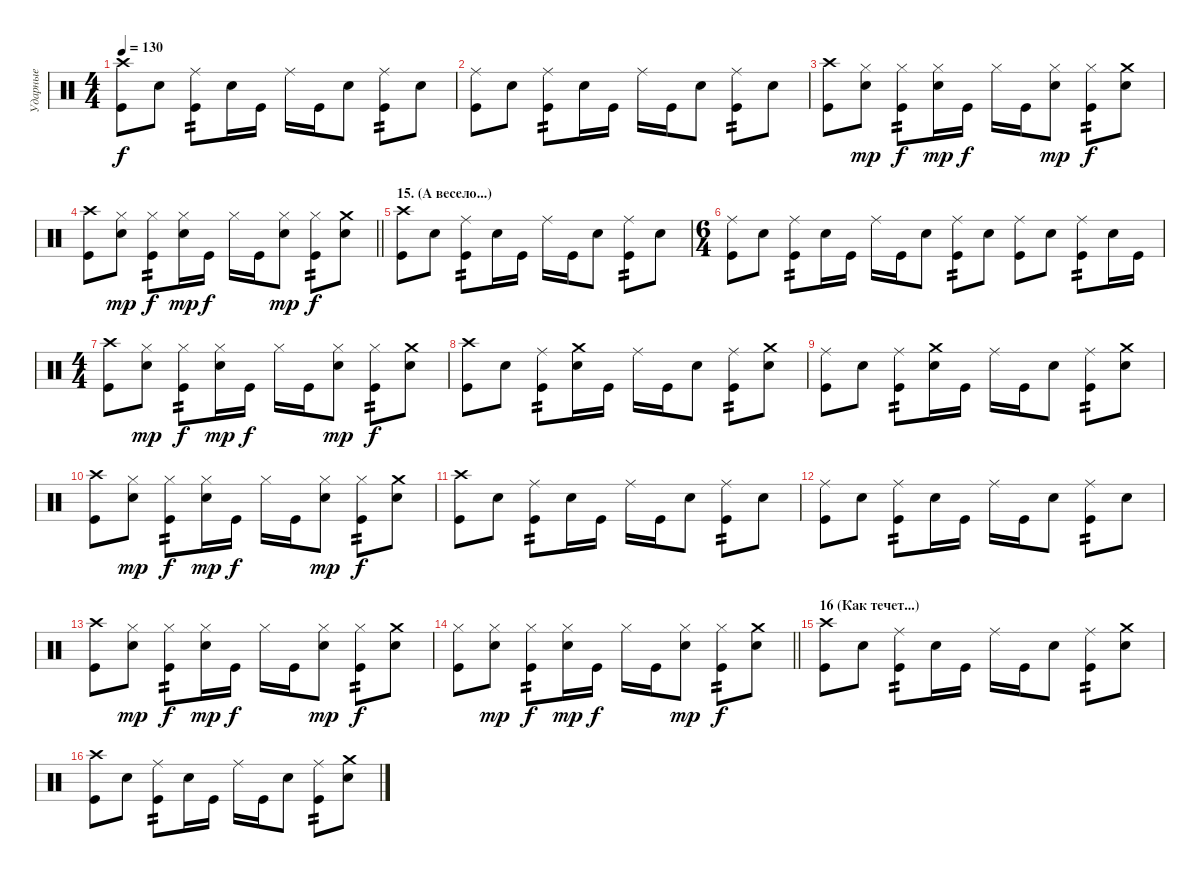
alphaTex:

\track ("Ударные" "Ударные") {instrument percussion}
\staff {score}
\articulation defaults
\ts (4 4)
\tempo 130
\clef neutral
\ks c
("Crash high (hit)" "Kick (hit)").8{dy f} "Snare (hit) 2".8 ("Ride (middle)" "Kick (hit)").8{tp 2} "Snare (hit) 2".16 "Kick (hit)".16 "Ride (middle)".16 "Kick (hit)".16 "Snare (hit) 2".8 ("Ride (middle)" "Kick (hit)").8{tp 2} "Snare (hit) 2".8 |
("Ride (middle)" "Kick (hit)").8 "Snare (hit) 2".8 ("Ride (middle)" "Kick (hit)").8{tp 2} "Snare (hit) 2".16 "Kick (hit)".16 "Ride (middle)".16 "Kick (hit)".16 "Snare (hit) 2".8 ("Ride (middle)" "Kick (hit)").8{tp 2} "Snare (hit) 2".8 |
("Crash high (hit)" "Kick (hit)").8 ("Hi-Hat (closed)" "Snare (hit) 2").8{dy mp} ("Hi-Hat (closed)" "Kick (hit)").8{tp 2 dy f} ("Hi-Hat (closed)" "Snare (hit) 2").16{dy mp} "Kick (hit)".16{dy f} "Hi-Hat (closed)".16 "Kick (hit)".16 ("Hi-Hat (closed)" "Snare (hit) 2").8{dy mp} ("Hi-Hat (closed)" "Kick (hit)").8{tp 2 dy f} ("Crash medium (hit)" "Snare (hit) 2").8 |
\barLineRight lightlight
("Crash high (hit)" "Kick (hit)").8 ("Hi-Hat (closed)" "Snare (hit) 2").8{dy mp} ("Hi-Hat (closed)" "Kick (hit)").8{tp 2 dy f} ("Hi-Hat (closed)" "Snare (hit) 2").16{dy mp} "Kick (hit)".16{dy f} "Hi-Hat (closed)".16 "Kick (hit)".16 ("Hi-Hat (closed)" "Snare (hit) 2").8{dy mp} ("Hi-Hat (closed)" "Kick (hit)").8{tp 2 dy f} ("Crash medium (hit)" "Snare (hit) 2").8 |
\section ("" "15. (А весело...)")
("Crash high (hit)" "Kick (hit)").8 "Snare (hit) 2".8 ("Ride (middle)" "Kick (hit)").8{tp 2} "Snare (hit) 2".16 "Kick (hit)".16 "Ride (middle)".16 "Kick (hit)".16 "Snare (hit) 2".8 ("Ride (middle)" "Kick (hit)").8{tp 2} "Snare (hit) 2".8 |
\ts (6 4)
("Ride (middle)" "Kick (hit)").8 "Snare (hit) 2".8 ("Ride (middle)" "Kick (hit)").8{tp 2} "Snare (hit) 2".16 "Kick (hit)".16 "Ride (middle)".16 "Kick (hit)".16 "Snare (hit) 2".8 ("Ride (middle)" "Kick (hit)").8{tp 2} "Snare (hit) 2".8 ("Ride (middle)" "Kick (hit)").8 "Snare (hit) 2".8 ("Ride (middle)" "Kick (hit)").8{tp 2} "Snare (hit) 2".16 "Kick (hit)".16 |
\ts (4 4)
("Crash high (hit)" "Kick (hit)").8 ("Hi-Hat (closed)" "Snare (hit) 2").8{dy mp} ("Hi-Hat (closed)" "Kick (hit)").8{tp 2 dy f} ("Hi-Hat (closed)" "Snare (hit) 2").16{dy mp} "Kick (hit)".16{dy f} "Hi-Hat (closed)".16 "Kick (hit)".16 ("Hi-Hat (closed)" "Snare (hit) 2").8{dy mp} ("Hi-Hat (closed)" "Kick (hit)").8{tp 2 dy f} ("Crash medium (hit)" "Snare (hit) 2").8 |
("Crash high (hit)" "Kick (hit)").8 "Snare (hit) 2".8 ("Ride (middle)" "Kick (hit)").8{tp 2} ("Crash medium (hit)" "Snare (hit) 2").16 "Kick (hit)".16 "Ride (middle)".16 "Kick (hit)".16 "Snare (hit) 2".8 ("Ride (middle)" "Kick (hit)").8{tp 2} ("Crash medium (hit)" "Snare (hit) 2").8 |
("Ride (middle)" "Kick (hit)").8 "Snare (hit) 2".8 ("Ride (middle)" "Kick (hit)").8{tp 2} ("Crash medium (hit)" "Snare (hit) 2").16 "Kick (hit)".16 "Ride (middle)".16 "Kick (hit)".16 "Snare (hit) 2".8 ("Ride (middle)" "Kick (hit)").8{tp 2} ("Crash medium (hit)" "Snare (hit) 2").8 |
("Crash high (hit)" "Kick (hit)").8 ("Hi-Hat (closed)" "Snare (hit) 2").8{dy mp} ("Hi-Hat (closed)" "Kick (hit)").8{tp 2 dy f} ("Hi-Hat (closed)" "Snare (hit) 2").16{dy mp} "Kick (hit)".16{dy f} "Hi-Hat (closed)".16 "Kick (hit)".16 ("Hi-Hat (closed)" "Snare (hit) 2").8{dy mp} ("Hi-Hat (closed)" "Kick (hit)").8{tp 2 dy f} ("Crash medium (hit)" "Snare (hit) 2").8 |
("Crash high (hit)" "Kick (hit)").8 "Snare (hit) 2".8 ("Ride (middle)" "Kick (hit)").8{tp 2} "Snare (hit) 2".16 "Kick (hit)".16 "Ride (middle)".16 "Kick (hit)".16 "Snare (hit) 2".8 ("Ride (middle)" "Kick (hit)").8{tp 2} "Snare (hit) 2".8 |
("Ride (middle)" "Kick (hit)").8 "Snare (hit) 2".8 ("Ride (middle)" "Kick (hit)").8{tp 2} "Snare (hit) 2".16 "Kick (hit)".16 "Ride (middle)".16 "Kick (hit)".16 "Snare (hit) 2".8 ("Ride (middle)" "Kick (hit)").8{tp 2} "Snare (hit) 2".8 |
("Crash high (hit)" "Kick (hit)").8 ("Hi-Hat (closed)" "Snare (hit) 2").8{dy mp} ("Hi-Hat (closed)" "Kick (hit)").8{tp 2 dy f} ("Hi-Hat (closed)" "Snare (hit) 2").16{dy mp} "Kick (hit)".16{dy f} "Hi-Hat (closed)".16 "Kick (hit)".16 ("Hi-Hat (closed)" "Snare (hit) 2").8{dy mp} ("Hi-Hat (closed)" "Kick (hit)").8{tp 2 dy f} ("Crash medium (hit)" "Snare (hit) 2").8 |
\barLineRight lightlight
("Hi-Hat (closed)" "Kick (hit)").8 ("Hi-Hat (closed)" "Snare (hit) 2").8{dy mp} ("Hi-Hat (closed)" "Kick (hit)").8{tp 2 dy f} ("Hi-Hat (closed)" "Snare (hit) 2").16{dy mp} "Kick (hit)".16{dy f} "Hi-Hat (closed)".16 "Kick (hit)".16 ("Hi-Hat (closed)" "Snare (hit) 2").8{dy mp} ("Hi-Hat (closed)" "Kick (hit)").8{tp 2 dy f} ("Crash medium (hit)" "Snare (hit) 2").8 |
\section ("" "16 (Как течет...)")
("Crash high (hit)" "Kick (hit)").8 "Snare (hit) 2".8 ("Ride (middle)" "Kick (hit)").8{tp 2} "Snare (hit) 2".16 "Kick (hit)".16 "Ride (middle)".16 "Kick (hit)".16 "Snare (hit) 2".8 ("Ride (middle)" "Kick (hit)").8{tp 2} ("Crash medium (hit)" "Snare (hit) 2").8 |
("Crash high (hit)" "Kick (hit)").8 "Snare (hit) 2".8 ("Ride (middle)" "Kick (hit)").8{tp 2} "Snare (hit) 2".16 "Kick (hit)".16 "Ride (middle)".16 "Kick (hit)".16 "Snare (hit) 2".8 ("Ride (middle)" "Kick (hit)").8{tp 2} ("Crash medium (hit)" "Snare (hit) 2").8
